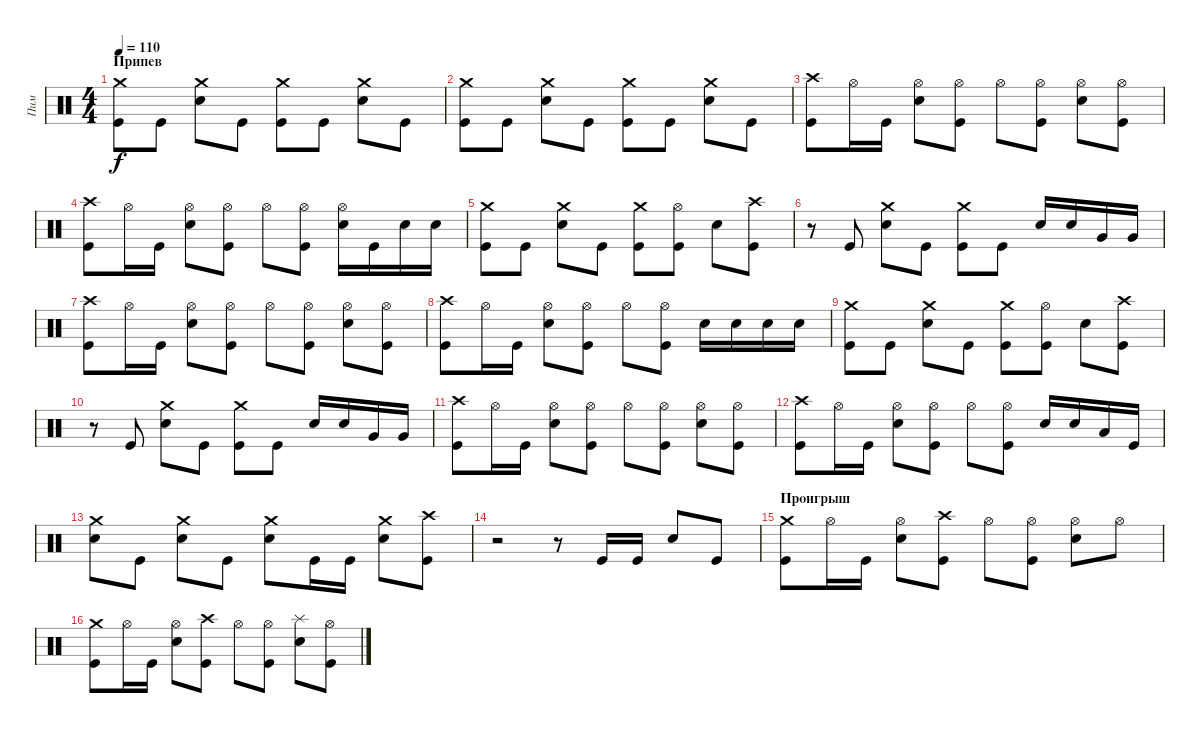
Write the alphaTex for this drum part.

\track ("Пим" "Пим") {instrument percussion}
\staff {score}
\articulation defaults
\ts (4 4)
\section ("" "Припев")
\tempo 110
\clef neutral
\ks c
("Crash medium (hit)" "Kick (hit)").8{dy f} "Kick (hit)".8 ("Crash medium (hit)" "Snare (hit) 2").8 "Kick (hit)".8 ("Crash medium (hit)" "Kick (hit)").8 "Kick (hit)".8 ("Crash medium (hit)" "Snare (hit) 2").8 "Kick (hit)".8 |
("Crash medium (hit)" "Kick (hit)").8 "Kick (hit)".8 ("Crash medium (hit)" "Snare (hit) 2").8 "Kick (hit)".8 ("Crash medium (hit)" "Kick (hit)").8 "Kick (hit)".8 ("Crash medium (hit)" "Snare (hit) 2").8 "Kick (hit)".8 |
("Crash high (hit)" "Kick (hit)").8 "Hi-Hat (open)".16 "Kick (hit)".16 ("Hi-Hat (open)" "Snare (hit) 2").8 ("Hi-Hat (open)" "Kick (hit)").8 "Hi-Hat (open)".8 ("Hi-Hat (open)" "Kick (hit)").8 ("Hi-Hat (open)" "Snare (hit) 2").8 ("Hi-Hat (open)" "Kick (hit)").8 |
("Crash high (hit)" "Kick (hit)").8 "Hi-Hat (open)".16 "Kick (hit)".16 ("Hi-Hat (open)" "Snare (hit) 2").8 ("Hi-Hat (open)" "Kick (hit)").8 "Hi-Hat (open)".8 ("Hi-Hat (open)" "Kick (hit)").8 ("Hi-Hat (open)" "Snare (hit) 2").16 "Kick (hit)".16 "Snare (hit) 2".16 "Snare (hit) 2".16 |
("Crash medium (hit)" "Kick (hit)").8 "Kick (hit)".8 ("Crash medium (hit)" "Snare (hit) 2").8 "Kick (hit)".8 ("Crash medium (hit)" "Kick (hit)").8 ("Hi-Hat (open)" "Kick (hit)").8 "Snare (hit) 2".8 ("Crash high (hit)" "Kick (hit)").8 |
r.8 "Kick (hit)".8 ("Crash medium (hit)" "Snare (hit) 2").8 "Kick (hit)".8 ("Crash medium (hit)" "Kick (hit)").8 "Kick (hit)".8 "Snare (hit) 2".16 "Snare (hit) 2".16 "Very Low Tom (hit)".16 "Very Low Tom (hit)".16 |
("Crash high (hit)" "Kick (hit)").8 "Hi-Hat (open)".16 "Kick (hit)".16 ("Hi-Hat (open)" "Snare (hit) 2").8 ("Hi-Hat (open)" "Kick (hit)").8 "Hi-Hat (open)".8 ("Hi-Hat (open)" "Kick (hit)").8 ("Hi-Hat (open)" "Snare (hit) 2").8 ("Hi-Hat (open)" "Kick (hit)").8 |
("Crash high (hit)" "Kick (hit)").8 "Hi-Hat (open)".16 "Kick (hit)".16 ("Hi-Hat (open)" "Snare (hit) 2").8 ("Hi-Hat (open)" "Kick (hit)").8 "Hi-Hat (open)".8 ("Hi-Hat (open)" "Kick (hit)").8 "Snare (hit) 2".16 "Snare (hit) 2".16 "Snare (hit) 2".16 "Snare (hit) 2".16 |
("Crash medium (hit)" "Kick (hit)").8 "Kick (hit)".8 ("Crash medium (hit)" "Snare (hit) 2").8 "Kick (hit)".8 ("Crash medium (hit)" "Kick (hit)").8 ("Hi-Hat (open)" "Kick (hit)").8 "Snare (hit) 2".8 ("Crash high (hit)" "Kick (hit)").8 |
r.8 "Kick (hit)".8 ("Crash medium (hit)" "Snare (hit) 2").8 "Kick (hit)".8 ("Crash medium (hit)" "Kick (hit)").8 "Kick (hit)".8 "Snare (hit) 2".16 "Snare (hit) 2".16 "Very Low Tom (hit)".16 "Very Low Tom (hit)".16 |
("Crash high (hit)" "Kick (hit)").8 "Hi-Hat (open)".16 "Kick (hit)".16 ("Hi-Hat (open)" "Snare (hit) 2").8 ("Hi-Hat (open)" "Kick (hit)").8 "Hi-Hat (open)".8 ("Hi-Hat (open)" "Kick (hit)").8 ("Hi-Hat (open)" "Snare (hit) 2").8 ("Hi-Hat (open)" "Kick (hit)").8 |
("Crash high (hit)" "Kick (hit)").8 "Hi-Hat (open)".16 "Kick (hit)".16 ("Hi-Hat (open)" "Snare (hit) 2").8 ("Hi-Hat (open)" "Kick (hit)").8 "Hi-Hat (open)".8 ("Hi-Hat (open)" "Kick (hit)").8 "Snare (hit) 2".16 "Snare (hit) 2".16 "Low Tom (hit)".16 "Kick (hit)".16 |
("Crash medium (hit)" "Snare (hit) 2").8 "Kick (hit)".8 ("Crash medium (hit)" "Snare (hit) 2").8 "Kick (hit)".8 ("Crash medium (hit)" "Snare (hit) 2").8 "Kick (hit)".16 "Kick (hit)".16 ("Crash medium (hit)" "Snare (hit) 2").8 ("Crash high (hit)" "Kick (hit)").8 |
r.2 r.8 "Kick (hit)".16 "Kick (hit)".16 "Snare (hit) 2".8 "Kick (hit)".8 |
\section ("" "Проигрыш")
("Crash medium (hit)" "Kick (hit)").8 "Hi-Hat (open)".16 "Kick (hit)".16 ("Hi-Hat (open)" "Snare (hit) 2").8 ("Crash high (hit)" "Kick (hit)").8 "Hi-Hat (open)".8 ("Hi-Hat (open)" "Kick (hit)").8 ("Hi-Hat (open)" "Snare (hit) 2").8 "Hi-Hat (open)".8 |
("Crash medium (hit)" "Kick (hit)").8 "Hi-Hat (open)".16 "Kick (hit)".16 ("Hi-Hat (open)" "Snare (hit) 2").8 ("Crash high (hit)" "Kick (hit)").8 "Hi-Hat (open)".8 ("Hi-Hat (open)" "Kick (hit)").8 ("Splash (hit)" "Snare (hit) 2").8 ("Hi-Hat (open)" "Kick (hit)").8
